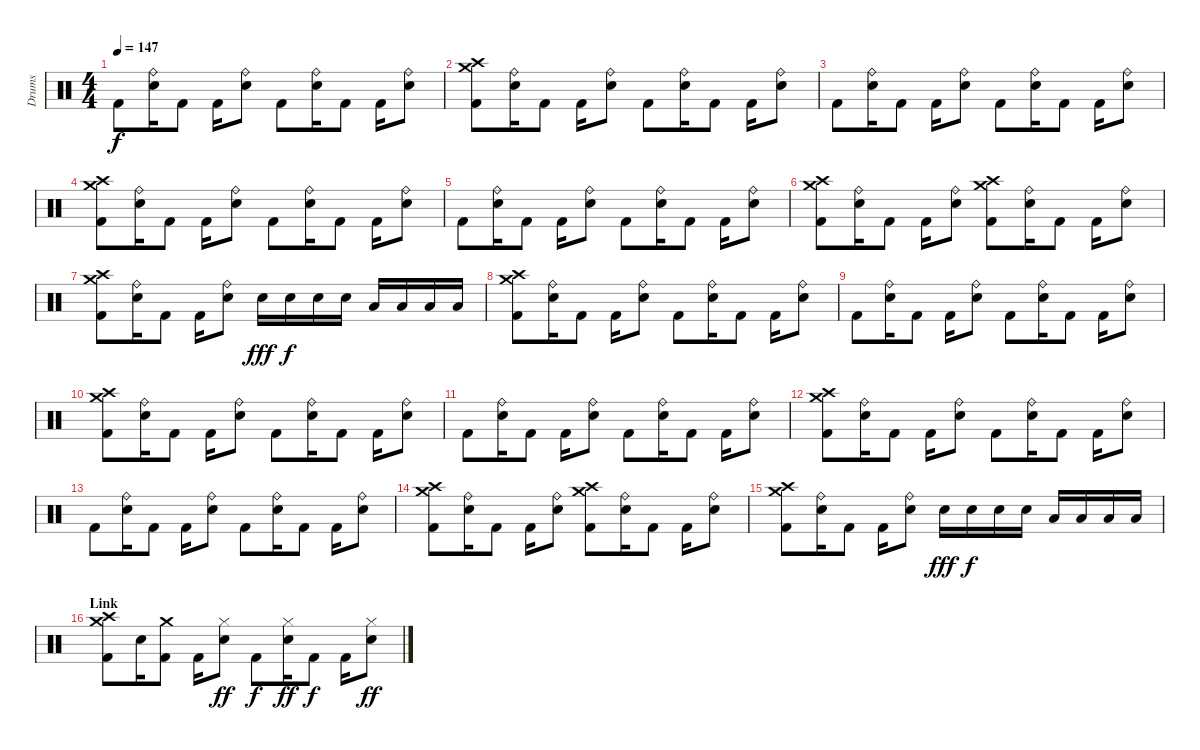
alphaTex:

\track ("Drums" "Drums") {instrument percussion}
\staff {score}
\articulation defaults
\ts (4 4)
\tempo 147
\clef neutral
\ks c "Kick (hit) 2".8{dy f}
("Ride (bell)" "Electric Snare (hit)").16 "Kick (hit) 2".8 "Kick (hit) 2".16 ("Ride (bell)" "Electric Snare (hit)").8 "Kick (hit) 2".8 ("Ride (bell)" "Electric Snare (hit)").16 "Kick (hit) 2".8 "Kick (hit) 2".16 ("Ride (bell)" "Electric Snare (hit)").8 |
("Crash high (hit)" "Crash medium (hit)" "Kick (hit) 2").8 ("Ride (bell)" "Electric Snare (hit)").16 "Kick (hit) 2".8 "Kick (hit) 2".16 ("Ride (bell)" "Electric Snare (hit)").8 "Kick (hit) 2".8 ("Ride (bell)" "Electric Snare (hit)").16 "Kick (hit) 2".8 "Kick (hit) 2".16 ("Ride (bell)" "Electric Snare (hit)").8 |
"Kick (hit) 2".8 ("Ride (bell)" "Electric Snare (hit)").16 "Kick (hit) 2".8 "Kick (hit) 2".16 ("Ride (bell)" "Electric Snare (hit)").8 "Kick (hit) 2".8 ("Ride (bell)" "Electric Snare (hit)").16 "Kick (hit) 2".8 "Kick (hit) 2".16 ("Ride (bell)" "Electric Snare (hit)").8 |
("Crash high (hit)" "Crash medium (hit)" "Kick (hit) 2").8 ("Ride (bell)" "Electric Snare (hit)").16 "Kick (hit) 2".8 "Kick (hit) 2".16 ("Ride (bell)" "Electric Snare (hit)").8 "Kick (hit) 2".8 ("Ride (bell)" "Electric Snare (hit)").16 "Kick (hit) 2".8 "Kick (hit) 2".16 ("Ride (bell)" "Electric Snare (hit)").8 |
"Kick (hit) 2".8 ("Ride (bell)" "Electric Snare (hit)").16 "Kick (hit) 2".8 "Kick (hit) 2".16 ("Ride (bell)" "Electric Snare (hit)").8 "Kick (hit) 2".8 ("Ride (bell)" "Electric Snare (hit)").16 "Kick (hit) 2".8 "Kick (hit) 2".16 ("Ride (bell)" "Electric Snare (hit)").8 |
("Crash high (hit)" "Crash medium (hit)" "Kick (hit) 2").8 ("Ride (bell)" "Electric Snare (hit)").16 "Kick (hit) 2".8 "Kick (hit) 2".16 ("Ride (bell)" "Electric Snare (hit)").8 ("Crash high (hit)" "Crash medium (hit)" "Kick (hit) 2").8 ("Ride (bell)" "Electric Snare (hit)").16 "Kick (hit) 2".8 "Kick (hit) 2".16 ("Ride (bell)" "Electric Snare (hit)").8 |
("Crash high (hit)" "Crash medium (hit)" "Kick (hit) 2").8 ("Ride (bell)" "Electric Snare (hit)").16 "Kick (hit) 2".8 "Kick (hit) 2".16 ("Ride (bell)" "Electric Snare (hit)").8 "Electric Snare (hit)".16{dy fff} "Electric Snare (hit)".16{dy f} "Electric Snare (hit)".16 "Electric Snare (hit)".16 "Low Tom (hit)".16 "Low Tom (hit)".16 "Low Tom (hit)".16 "Low Tom (hit)".16 |
("Crash high (hit)" "Crash medium (hit)" "Kick (hit) 2").8 ("Ride (bell)" "Electric Snare (hit)").16 "Kick (hit) 2".8 "Kick (hit) 2".16 ("Ride (bell)" "Electric Snare (hit)").8 "Kick (hit) 2".8 ("Ride (bell)" "Electric Snare (hit)").16 "Kick (hit) 2".8 "Kick (hit) 2".16 ("Ride (bell)" "Electric Snare (hit)").8 |
"Kick (hit) 2".8 ("Ride (bell)" "Electric Snare (hit)").16 "Kick (hit) 2".8 "Kick (hit) 2".16 ("Ride (bell)" "Electric Snare (hit)").8 "Kick (hit) 2".8 ("Ride (bell)" "Electric Snare (hit)").16 "Kick (hit) 2".8 "Kick (hit) 2".16 ("Ride (bell)" "Electric Snare (hit)").8 |
("Crash high (hit)" "Crash medium (hit)" "Kick (hit) 2").8 ("Ride (bell)" "Electric Snare (hit)").16 "Kick (hit) 2".8 "Kick (hit) 2".16 ("Ride (bell)" "Electric Snare (hit)").8 "Kick (hit) 2".8 ("Ride (bell)" "Electric Snare (hit)").16 "Kick (hit) 2".8 "Kick (hit) 2".16 ("Ride (bell)" "Electric Snare (hit)").8 |
"Kick (hit) 2".8 ("Ride (bell)" "Electric Snare (hit)").16 "Kick (hit) 2".8 "Kick (hit) 2".16 ("Ride (bell)" "Electric Snare (hit)").8 "Kick (hit) 2".8 ("Ride (bell)" "Electric Snare (hit)").16 "Kick (hit) 2".8 "Kick (hit) 2".16 ("Ride (bell)" "Electric Snare (hit)").8 |
("Crash high (hit)" "Crash medium (hit)" "Kick (hit) 2").8 ("Ride (bell)" "Electric Snare (hit)").16 "Kick (hit) 2".8 "Kick (hit) 2".16 ("Ride (bell)" "Electric Snare (hit)").8 "Kick (hit) 2".8 ("Ride (bell)" "Electric Snare (hit)").16 "Kick (hit) 2".8 "Kick (hit) 2".16 ("Ride (bell)" "Electric Snare (hit)").8 |
"Kick (hit) 2".8 ("Ride (bell)" "Electric Snare (hit)").16 "Kick (hit) 2".8 "Kick (hit) 2".16 ("Ride (bell)" "Electric Snare (hit)").8 "Kick (hit) 2".8 ("Ride (bell)" "Electric Snare (hit)").16 "Kick (hit) 2".8 "Kick (hit) 2".16 ("Ride (bell)" "Electric Snare (hit)").8 |
("Crash high (hit)" "Crash medium (hit)" "Kick (hit) 2").8 ("Ride (bell)" "Electric Snare (hit)").16 "Kick (hit) 2".8 "Kick (hit) 2".16 ("Ride (bell)" "Electric Snare (hit)").8 ("Crash high (hit)" "Crash medium (hit)" "Kick (hit) 2").8 ("Ride (bell)" "Electric Snare (hit)").16 "Kick (hit) 2".8 "Kick (hit) 2".16 ("Ride (bell)" "Electric Snare (hit)").8 |
("Crash high (hit)" "Crash medium (hit)" "Kick (hit) 2").8 ("Ride (bell)" "Electric Snare (hit)").16 "Kick (hit) 2".8 "Kick (hit) 2".16 ("Ride (bell)" "Electric Snare (hit)").8 "Electric Snare (hit)".16{dy fff} "Electric Snare (hit)".16{dy f} "Electric Snare (hit)".16 "Electric Snare (hit)".16 "Low Tom (hit)".16 "Low Tom (hit)".16 "Low Tom (hit)".16 "Low Tom (hit)".16 |
\section ("" "Link")
("Crash high (hit)" "Crash medium (hit)" "Kick (hit) 2").8 "Electric Snare (hit)".16 ("Crash medium (hit)" "Kick (hit) 2").8 "Kick (hit) 2".16 ("Hi-Hat (closed)" "Electric Snare (hit)").8{dy ff} "Kick (hit) 2".8{dy f} ("Hi-Hat (closed)" "Electric Snare (hit)").16{dy ff} "Kick (hit) 2".8{dy f} "Kick (hit) 2".16 ("Hi-Hat (closed)" "Electric Snare (hit)").8{dy ff}
